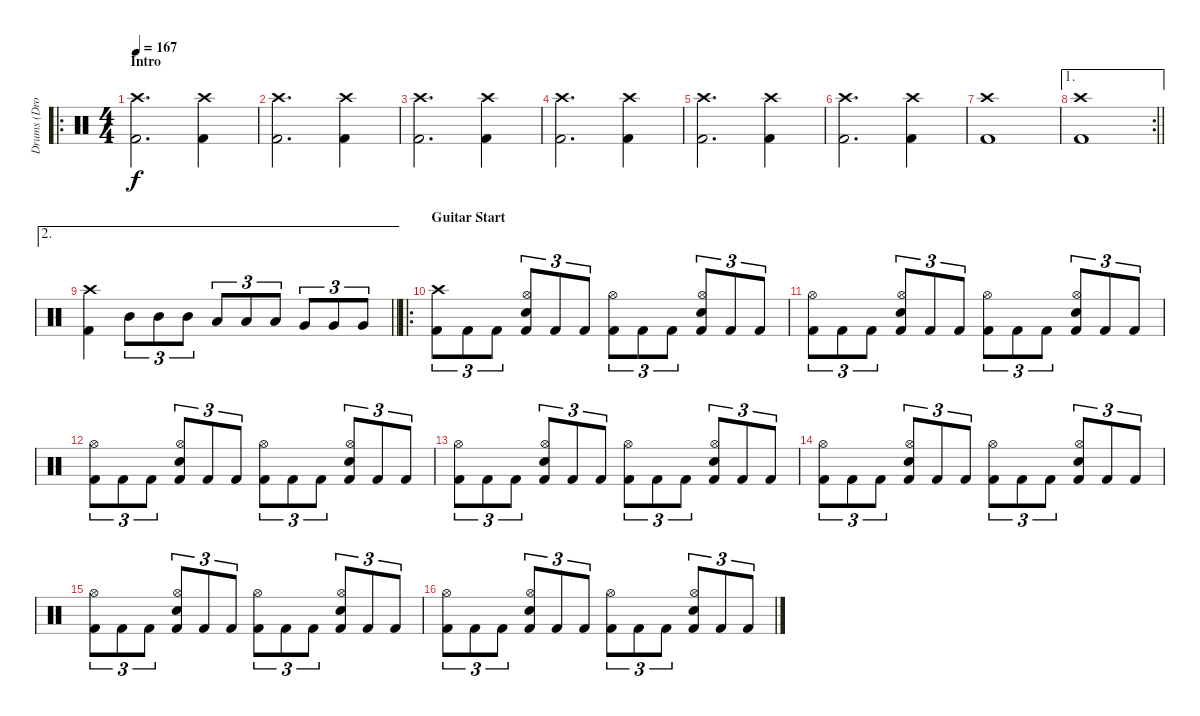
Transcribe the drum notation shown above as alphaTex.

\track ("Drums (Drover)" "Drums (Dro") {instrument percussion}
\staff {score}
\articulation defaults
\ro
\ts (4 4)
\section ("" "Intro")
\tempo 167
\clef neutral
\ks c
("Crash high (hit)" "Kick (hit) 2").2{d dy f} ("Crash high (hit)" "Kick (hit) 2").4 |
("Crash high (hit)" "Kick (hit) 2").2{d} ("Crash high (hit)" "Kick (hit) 2").4 |
("Crash high (hit)" "Kick (hit) 2").2{d} ("Crash high (hit)" "Kick (hit) 2").4 |
("Crash high (hit)" "Kick (hit) 2").2{d} ("Crash high (hit)" "Kick (hit) 2").4 |
("Crash high (hit)" "Kick (hit) 2").2{d} ("Crash high (hit)" "Kick (hit) 2").4 |
("Crash high (hit)" "Kick (hit) 2").2{d} ("Crash high (hit)" "Kick (hit) 2").4 |
("Crash high (hit)" "Kick (hit) 2").1 |
\ae 1
\rc 2
\barLineRight lightlight
("Kick (hit) 2" "Crash high (hit)").1 |
\ae 2
\barLineRight lightlight
("Crash high (hit)" "Kick (hit) 2").4 "Mid Tom (hit)".8{tu (3 2)} "Mid Tom (hit)".8{tu (3 2)} "Mid Tom (hit)".8{tu (3 2)} "Low Tom (hit)".8{tu (3 2)} "Low Tom (hit)".8{tu (3 2)} "Low Tom (hit)".8{tu (3 2)} "Very Low Tom (hit)".8{tu (3 2)} "Very Low Tom (hit)".8{tu (3 2)} "Very Low Tom (hit)".8{tu (3 2)} |
\ro
\section ("" "Guitar Start")
("Crash high (hit)" "Kick (hit) 2").8{tu (3 2)} "Kick (hit) 2".8{tu (3 2)} "Kick (hit) 2".8{tu (3 2)} ("Hi-Hat (open)" "Electric Snare (hit)" "Kick (hit) 2").8{tu (3 2)} "Kick (hit) 2".8{tu (3 2)} "Kick (hit) 2".8{tu (3 2)} ("Hi-Hat (open)" "Kick (hit) 2").8{tu (3 2)} "Kick (hit) 2".8{tu (3 2)} "Kick (hit) 2".8{tu (3 2)} ("Hi-Hat (open)" "Electric Snare (hit)" "Kick (hit) 2").8{tu (3 2)} "Kick (hit) 2".8{tu (3 2)} "Kick (hit) 2".8{tu (3 2)} |
("Hi-Hat (open)" "Kick (hit) 2").8{tu (3 2)} "Kick (hit) 2".8{tu (3 2)} "Kick (hit) 2".8{tu (3 2)} ("Hi-Hat (open)" "Electric Snare (hit)" "Kick (hit) 2").8{tu (3 2)} "Kick (hit) 2".8{tu (3 2)} "Kick (hit) 2".8{tu (3 2)} ("Hi-Hat (open)" "Kick (hit) 2").8{tu (3 2)} "Kick (hit) 2".8{tu (3 2)} "Kick (hit) 2".8{tu (3 2)} ("Hi-Hat (open)" "Electric Snare (hit)" "Kick (hit) 2").8{tu (3 2)} "Kick (hit) 2".8{tu (3 2)} "Kick (hit) 2".8{tu (3 2)} |
("Hi-Hat (open)" "Kick (hit) 2").8{tu (3 2)} "Kick (hit) 2".8{tu (3 2)} "Kick (hit) 2".8{tu (3 2)} ("Hi-Hat (open)" "Electric Snare (hit)" "Kick (hit) 2").8{tu (3 2)} "Kick (hit) 2".8{tu (3 2)} "Kick (hit) 2".8{tu (3 2)} ("Hi-Hat (open)" "Kick (hit) 2").8{tu (3 2)} "Kick (hit) 2".8{tu (3 2)} "Kick (hit) 2".8{tu (3 2)} ("Hi-Hat (open)" "Electric Snare (hit)" "Kick (hit) 2").8{tu (3 2)} "Kick (hit) 2".8{tu (3 2)} "Kick (hit) 2".8{tu (3 2)} |
("Hi-Hat (open)" "Kick (hit) 2").8{tu (3 2)} "Kick (hit) 2".8{tu (3 2)} "Kick (hit) 2".8{tu (3 2)} ("Hi-Hat (open)" "Electric Snare (hit)" "Kick (hit) 2").8{tu (3 2)} "Kick (hit) 2".8{tu (3 2)} "Kick (hit) 2".8{tu (3 2)} ("Hi-Hat (open)" "Kick (hit) 2").8{tu (3 2)} "Kick (hit) 2".8{tu (3 2)} "Kick (hit) 2".8{tu (3 2)} ("Hi-Hat (open)" "Electric Snare (hit)" "Kick (hit) 2").8{tu (3 2)} "Kick (hit) 2".8{tu (3 2)} "Kick (hit) 2".8{tu (3 2)} |
("Hi-Hat (open)" "Kick (hit) 2").8{tu (3 2)} "Kick (hit) 2".8{tu (3 2)} "Kick (hit) 2".8{tu (3 2)} ("Hi-Hat (open)" "Electric Snare (hit)" "Kick (hit) 2").8{tu (3 2)} "Kick (hit) 2".8{tu (3 2)} "Kick (hit) 2".8{tu (3 2)} ("Hi-Hat (open)" "Kick (hit) 2").8{tu (3 2)} "Kick (hit) 2".8{tu (3 2)} "Kick (hit) 2".8{tu (3 2)} ("Hi-Hat (open)" "Electric Snare (hit)" "Kick (hit) 2").8{tu (3 2)} "Kick (hit) 2".8{tu (3 2)} "Kick (hit) 2".8{tu (3 2)} |
("Hi-Hat (open)" "Kick (hit) 2").8{tu (3 2)} "Kick (hit) 2".8{tu (3 2)} "Kick (hit) 2".8{tu (3 2)} ("Hi-Hat (open)" "Electric Snare (hit)" "Kick (hit) 2").8{tu (3 2)} "Kick (hit) 2".8{tu (3 2)} "Kick (hit) 2".8{tu (3 2)} ("Hi-Hat (open)" "Kick (hit) 2").8{tu (3 2)} "Kick (hit) 2".8{tu (3 2)} "Kick (hit) 2".8{tu (3 2)} ("Hi-Hat (open)" "Electric Snare (hit)" "Kick (hit) 2").8{tu (3 2)} "Kick (hit) 2".8{tu (3 2)} "Kick (hit) 2".8{tu (3 2)} |
("Hi-Hat (open)" "Kick (hit) 2").8{tu (3 2)} "Kick (hit) 2".8{tu (3 2)} "Kick (hit) 2".8{tu (3 2)} ("Hi-Hat (open)" "Electric Snare (hit)" "Kick (hit) 2").8{tu (3 2)} "Kick (hit) 2".8{tu (3 2)} "Kick (hit) 2".8{tu (3 2)} ("Hi-Hat (open)" "Kick (hit) 2").8{tu (3 2)} "Kick (hit) 2".8{tu (3 2)} "Kick (hit) 2".8{tu (3 2)} ("Hi-Hat (open)" "Electric Snare (hit)" "Kick (hit) 2").8{tu (3 2)} "Kick (hit) 2".8{tu (3 2)} "Kick (hit) 2".8{tu (3 2)}
